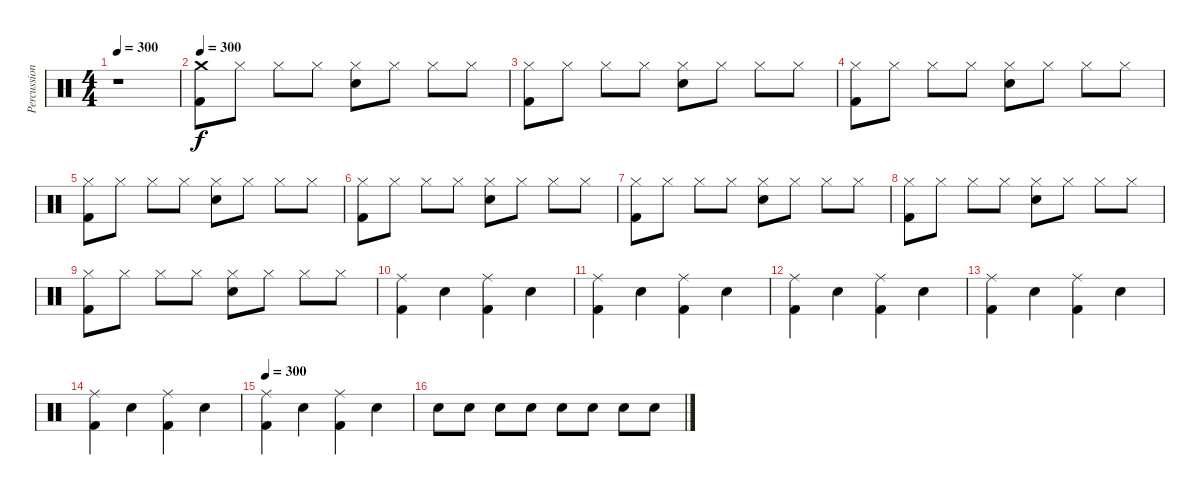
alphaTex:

\track ("Percussion" "Percussion") {instrument percussion}
\staff {score}
\articulation defaults
\ts (4 4)
\tempo 300
\clef neutral
\ks c
r.1{dy f} |
\tempo 300
("Crash medium (hit)" "Kick (hit) 2").8 "Hi-Hat (closed)".8 "Hi-Hat (closed)".8 "Hi-Hat (closed)".8 ("Snare (hit) 2" "Hi-Hat (closed)").8 "Hi-Hat (closed)".8 "Hi-Hat (closed)".8 "Hi-Hat (closed)".8 |
("Kick (hit) 2" "Hi-Hat (closed)").8 "Hi-Hat (closed)".8 "Hi-Hat (closed)".8 "Hi-Hat (closed)".8 ("Snare (hit) 2" "Hi-Hat (closed)").8 "Hi-Hat (closed)".8 "Hi-Hat (closed)".8 "Hi-Hat (closed)".8 |
("Kick (hit) 2" "Hi-Hat (closed)").8 "Hi-Hat (closed)".8 "Hi-Hat (closed)".8 "Hi-Hat (closed)".8 ("Snare (hit) 2" "Hi-Hat (closed)").8 "Hi-Hat (closed)".8 "Hi-Hat (closed)".8 "Hi-Hat (closed)".8 |
("Kick (hit) 2" "Hi-Hat (closed)").8 "Hi-Hat (closed)".8 "Hi-Hat (closed)".8 "Hi-Hat (closed)".8 ("Snare (hit) 2" "Hi-Hat (closed)").8 "Hi-Hat (closed)".8 "Hi-Hat (closed)".8 "Hi-Hat (closed)".8 |
("Kick (hit) 2" "Hi-Hat (closed)").8 "Hi-Hat (closed)".8 "Hi-Hat (closed)".8 "Hi-Hat (closed)".8 ("Snare (hit) 2" "Hi-Hat (closed)").8 "Hi-Hat (closed)".8 "Hi-Hat (closed)".8 "Hi-Hat (closed)".8 |
("Kick (hit) 2" "Hi-Hat (closed)").8 "Hi-Hat (closed)".8 "Hi-Hat (closed)".8 "Hi-Hat (closed)".8 ("Snare (hit) 2" "Hi-Hat (closed)").8 "Hi-Hat (closed)".8 "Hi-Hat (closed)".8 "Hi-Hat (closed)".8 |
("Kick (hit) 2" "Hi-Hat (closed)").8 "Hi-Hat (closed)".8 "Hi-Hat (closed)".8 "Hi-Hat (closed)".8 ("Snare (hit) 2" "Hi-Hat (closed)").8 "Hi-Hat (closed)".8 "Hi-Hat (closed)".8 "Hi-Hat (closed)".8 |
("Kick (hit) 2" "Hi-Hat (closed)").8 "Hi-Hat (closed)".8 "Hi-Hat (closed)".8 "Hi-Hat (closed)".8 ("Snare (hit) 2" "Hi-Hat (closed)").8 "Hi-Hat (closed)".8 "Hi-Hat (closed)".8 "Hi-Hat (closed)".8 |
("Kick (hit) 2" "Ride (middle)").4 "Snare (hit) 2".4 ("Kick (hit) 2" "Ride (middle)").4 "Snare (hit) 2".4 |
("Kick (hit) 2" "Ride (middle)").4 "Snare (hit) 2".4 ("Kick (hit) 2" "Ride (middle)").4 "Snare (hit) 2".4 |
("Kick (hit) 2" "Ride (middle)").4 "Snare (hit) 2".4 ("Kick (hit) 2" "Ride (middle)").4 "Snare (hit) 2".4 |
("Kick (hit) 2" "Ride (middle)").4 "Snare (hit) 2".4 ("Kick (hit) 2" "Ride (middle)").4 "Snare (hit) 2".4 |
("Kick (hit) 2" "Ride (middle)").4 "Snare (hit) 2".4 ("Kick (hit) 2" "Ride (middle)").4 "Snare (hit) 2".4 |
\tempo 300
("Kick (hit) 2" "Ride (middle)").4 "Snare (hit) 2".4 ("Kick (hit) 2" "Ride (middle)").4 "Snare (hit) 2".4 |
"Snare (hit) 2".8 "Snare (hit) 2".8 "Snare (hit) 2".8 "Snare (hit) 2".8 "Snare (hit) 2".8 "Snare (hit) 2".8 "Snare (hit) 2".8 "Snare (hit) 2".8
